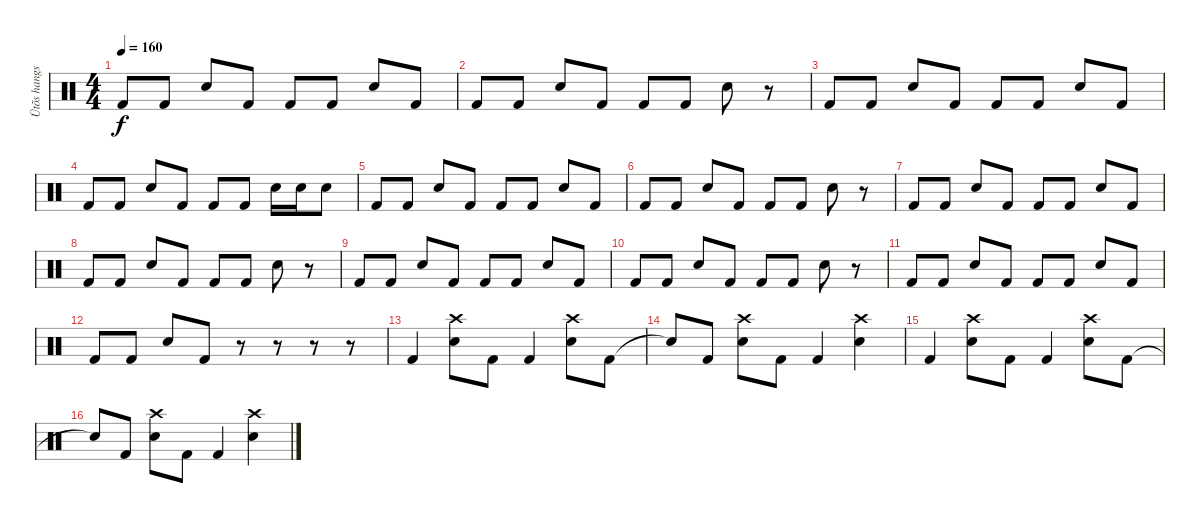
\track ("Ütõs hangszer" "Ütõs hangs") {instrument percussion}
\staff {score}
\articulation defaults
\ts (4 4)
\tempo 160
\clef neutral
\ks c "Kick (hit) 2".8{dy f} "Kick (hit) 2".8 "Electric Snare (hit)".8 "Kick (hit) 2".8 "Kick (hit) 2".8 "Kick (hit) 2".8 "Electric Snare (hit)".8 "Kick (hit) 2".8
|
"Kick (hit) 2".8 "Kick (hit) 2".8 "Electric Snare (hit)".8 "Kick (hit) 2".8 "Kick (hit) 2".8 "Kick (hit) 2".8 "Electric Snare (hit)".8 r.8 |
"Kick (hit) 2".8 "Kick (hit) 2".8 "Electric Snare (hit)".8 "Kick (hit) 2".8 "Kick (hit) 2".8 "Kick (hit) 2".8 "Electric Snare (hit)".8 "Kick (hit) 2".8 |
"Kick (hit) 2".8 "Kick (hit) 2".8 "Electric Snare (hit)".8 "Kick (hit) 2".8 "Kick (hit) 2".8 "Kick (hit) 2".8 "Electric Snare (hit)".16 "Electric Snare (hit)".16 "Electric Snare (hit)".8 |
"Kick (hit) 2".8 "Kick (hit) 2".8 "Electric Snare (hit)".8 "Kick (hit) 2".8 "Kick (hit) 2".8 "Kick (hit) 2".8 "Electric Snare (hit)".8 "Kick (hit) 2".8 |
"Kick (hit) 2".8 "Kick (hit) 2".8 "Electric Snare (hit)".8 "Kick (hit) 2".8 "Kick (hit) 2".8 "Kick (hit) 2".8 "Electric Snare (hit)".8 r.8 |
"Kick (hit) 2".8 "Kick (hit) 2".8 "Electric Snare (hit)".8 "Kick (hit) 2".8 "Kick (hit) 2".8 "Kick (hit) 2".8 "Electric Snare (hit)".8 "Kick (hit) 2".8 |
"Kick (hit) 2".8 "Kick (hit) 2".8 "Electric Snare (hit)".8 "Kick (hit) 2".8 "Kick (hit) 2".8 "Kick (hit) 2".8 "Electric Snare (hit)".8 r.8 |
"Kick (hit) 2".8 "Kick (hit) 2".8 "Electric Snare (hit)".8 "Kick (hit) 2".8 "Kick (hit) 2".8 "Kick (hit) 2".8 "Electric Snare (hit)".8 "Kick (hit) 2".8 |
"Kick (hit) 2".8 "Kick (hit) 2".8 "Electric Snare (hit)".8 "Kick (hit) 2".8 "Kick (hit) 2".8 "Kick (hit) 2".8 "Electric Snare (hit)".8 r.8 |
"Kick (hit) 2".8 "Kick (hit) 2".8 "Electric Snare (hit)".8 "Kick (hit) 2".8 "Kick (hit) 2".8 "Kick (hit) 2".8 "Electric Snare (hit)".8 "Kick (hit) 2".8 |
"Kick (hit) 2".8 "Kick (hit) 2".8 "Electric Snare (hit)".8 "Kick (hit) 2".8 r.8 r.8 r.8 r.8 |
"Kick (hit) 2".4 ("Crash high (hit)" "Electric Snare (hit)").8 "Kick (hit) 2".8 "Kick (hit) 2".4 ("Crash high (hit)" "Electric Snare (hit)").8 "Kick (hit) 2".8 |
"Snare (hit)"{t}.8 "Kick (hit) 2".8 ("Crash high (hit)" "Electric Snare (hit)").8 "Kick (hit) 2".8 "Kick (hit) 2".4 ("Crash high (hit)" "Electric Snare (hit)").4 |
"Kick (hit) 2".4 ("Crash high (hit)" "Electric Snare (hit)").8 "Kick (hit) 2".8 "Kick (hit) 2".4 ("Crash high (hit)" "Electric Snare (hit)").8 "Kick (hit) 2".8 |
"Snare (hit)"{t}.8 "Kick (hit) 2".8 ("Crash high (hit)" "Electric Snare (hit)").8 "Kick (hit) 2".8 "Kick (hit) 2".4 ("Crash high (hit)" "Electric Snare (hit)").4
